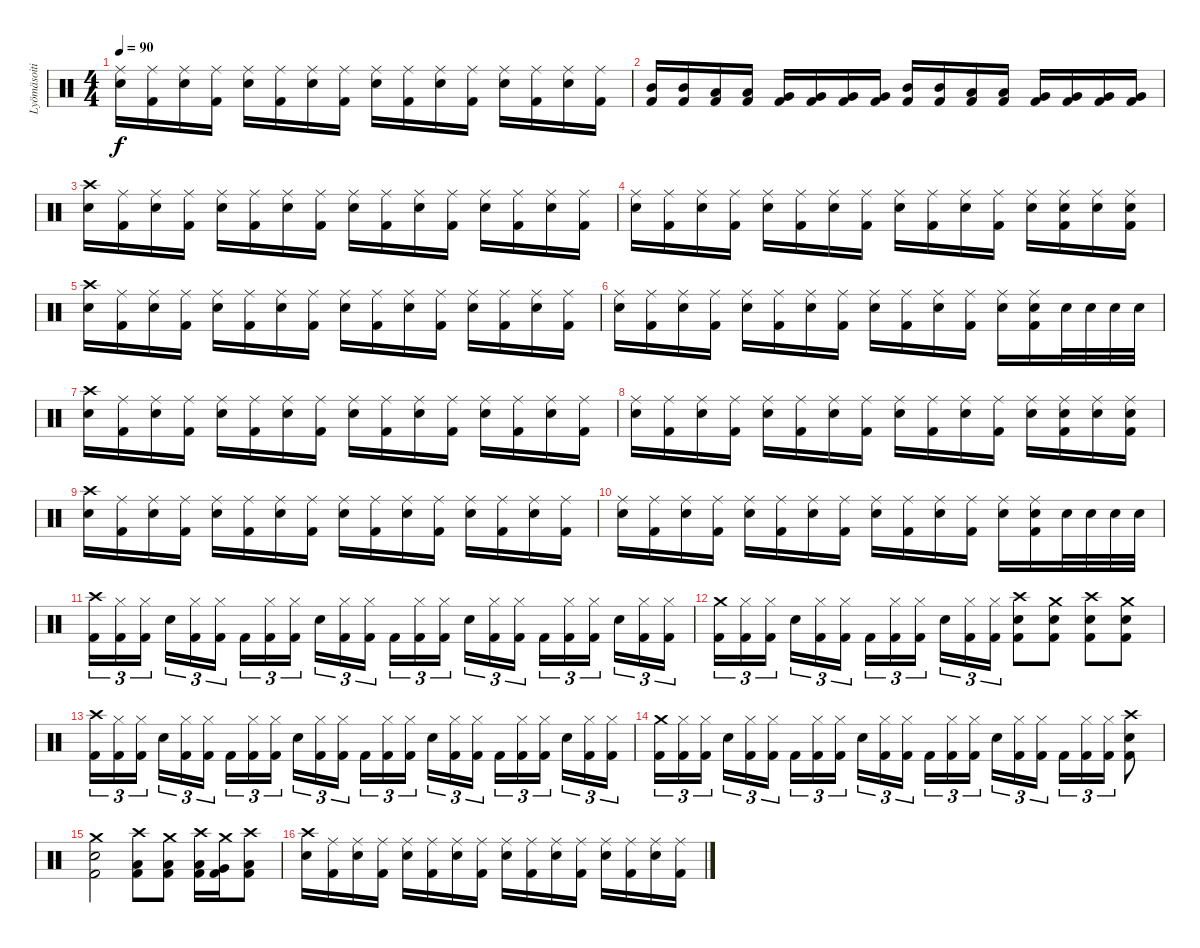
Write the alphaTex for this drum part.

\track ("Lyömäsoitin" "Lyömäsoiti") {instrument percussion}
\staff {score}
\articulation defaults
\ts (4 4)
\tempo 90
\clef neutral
\ks c
("Ride (middle)" "Snare (hit) 2").16{dy f} ("Ride (middle)" "Kick (hit) 2").16 ("Ride (middle)" "Snare (hit) 2").16 ("Ride (middle)" "Kick (hit) 2").16 ("Ride (middle)" "Snare (hit) 2").16 ("Ride (middle)" "Kick (hit) 2").16 ("Ride (middle)" "Snare (hit) 2").16 ("Ride (middle)" "Kick (hit) 2").16 ("Ride (middle)" "Snare (hit) 2").16 ("Ride (middle)" "Kick (hit) 2").16 ("Ride (middle)" "Snare (hit) 2").16 ("Ride (middle)" "Kick (hit) 2").16 ("Ride (middle)" "Snare (hit) 2").16 ("Ride (middle)" "Kick (hit) 2").16 ("Ride (middle)" "Snare (hit) 2").16 ("Ride (middle)" "Kick (hit) 2").16 |
("Mid Tom (hit)" "Kick (hit) 2").16 ("Mid Tom (hit)" "Kick (hit) 2").16 ("Low Tom (hit)" "Kick (hit) 2").16 ("Low Tom (hit)" "Kick (hit) 2").16 ("Very Low Tom (hit)" "Kick (hit) 2").16 ("Very Low Tom (hit)" "Kick (hit) 2").16 ("Very Low Tom (hit)" "Kick (hit) 2").16 ("Very Low Tom (hit)" "Kick (hit) 2").16 ("Mid Tom (hit)" "Kick (hit) 2").16 ("Mid Tom (hit)" "Kick (hit) 2").16 ("Low Tom (hit)" "Kick (hit) 2").16 ("Low Tom (hit)" "Kick (hit) 2").16 ("Very Low Tom (hit)" "Kick (hit) 2").16 ("Very Low Tom (hit)" "Kick (hit) 2").16 ("Very Low Tom (hit)" "Kick (hit) 2").16 ("Very Low Tom (hit)" "Kick (hit) 2").16 |
("Crash high (hit)" "Snare (hit) 2").16 ("Ride (middle)" "Kick (hit) 2").16 ("Ride (middle)" "Snare (hit) 2").16 ("Ride (middle)" "Kick (hit) 2").16 ("Ride (middle)" "Snare (hit) 2").16 ("Ride (middle)" "Kick (hit) 2").16 ("Ride (middle)" "Snare (hit) 2").16 ("Ride (middle)" "Kick (hit) 2").16 ("Ride (middle)" "Snare (hit) 2").16 ("Ride (middle)" "Kick (hit) 2").16 ("Ride (middle)" "Snare (hit) 2").16 ("Ride (middle)" "Kick (hit) 2").16 ("Ride (middle)" "Snare (hit) 2").16 ("Ride (middle)" "Kick (hit) 2").16 ("Ride (middle)" "Snare (hit) 2").16 ("Ride (middle)" "Kick (hit) 2").16 |
("Ride (middle)" "Snare (hit) 2").16 ("Ride (middle)" "Kick (hit) 2").16 ("Ride (middle)" "Snare (hit) 2").16 ("Ride (middle)" "Kick (hit) 2").16 ("Ride (middle)" "Snare (hit) 2").16 ("Ride (middle)" "Kick (hit) 2").16 ("Ride (middle)" "Snare (hit) 2").16 ("Ride (middle)" "Kick (hit) 2").16 ("Ride (middle)" "Snare (hit) 2").16 ("Ride (middle)" "Kick (hit) 2").16 ("Ride (middle)" "Snare (hit) 2").16 ("Ride (middle)" "Kick (hit) 2").16 ("Ride (middle)" "Snare (hit) 2").16 ("Ride (middle)" "Snare (hit) 2" "Kick (hit) 2").16 ("Ride (middle)" "Snare (hit) 2").16 ("Ride (middle)" "Snare (hit) 2" "Kick (hit) 2").16 |
("Crash high (hit)" "Snare (hit) 2").16 ("Ride (middle)" "Kick (hit) 2").16 ("Ride (middle)" "Snare (hit) 2").16 ("Ride (middle)" "Kick (hit) 2").16 ("Ride (middle)" "Snare (hit) 2").16 ("Ride (middle)" "Kick (hit) 2").16 ("Ride (middle)" "Snare (hit) 2").16 ("Ride (middle)" "Kick (hit) 2").16 ("Ride (middle)" "Snare (hit) 2").16 ("Ride (middle)" "Kick (hit) 2").16 ("Ride (middle)" "Snare (hit) 2").16 ("Ride (middle)" "Kick (hit) 2").16 ("Ride (middle)" "Snare (hit) 2").16 ("Ride (middle)" "Kick (hit) 2").16 ("Ride (middle)" "Snare (hit) 2").16 ("Ride (middle)" "Kick (hit) 2").16 |
("Ride (middle)" "Snare (hit) 2").16 ("Ride (middle)" "Kick (hit) 2").16 ("Ride (middle)" "Snare (hit) 2").16 ("Ride (middle)" "Kick (hit) 2").16 ("Ride (middle)" "Snare (hit) 2").16 ("Ride (middle)" "Kick (hit) 2").16 ("Ride (middle)" "Snare (hit) 2").16 ("Ride (middle)" "Kick (hit) 2").16 ("Ride (middle)" "Snare (hit) 2").16 ("Ride (middle)" "Kick (hit) 2").16 ("Ride (middle)" "Snare (hit) 2").16 ("Ride (middle)" "Kick (hit) 2").16 ("Ride (middle)" "Snare (hit) 2").16 ("Ride (middle)" "Snare (hit) 2" "Kick (hit) 2").16 "Snare (hit) 2".32 "Snare (hit) 2".32 "Snare (hit) 2".32 "Snare (hit) 2".32 |
("Crash high (hit)" "Snare (hit) 2").16 ("Ride (middle)" "Kick (hit) 2").16 ("Ride (middle)" "Snare (hit) 2").16 ("Ride (middle)" "Kick (hit) 2").16 ("Ride (middle)" "Snare (hit) 2").16 ("Ride (middle)" "Kick (hit) 2").16 ("Ride (middle)" "Snare (hit) 2").16 ("Ride (middle)" "Kick (hit) 2").16 ("Ride (middle)" "Snare (hit) 2").16 ("Ride (middle)" "Kick (hit) 2").16 ("Ride (middle)" "Snare (hit) 2").16 ("Ride (middle)" "Kick (hit) 2").16 ("Ride (middle)" "Snare (hit) 2").16 ("Ride (middle)" "Kick (hit) 2").16 ("Ride (middle)" "Snare (hit) 2").16 ("Ride (middle)" "Kick (hit) 2").16 |
("Ride (middle)" "Snare (hit) 2").16 ("Ride (middle)" "Kick (hit) 2").16 ("Ride (middle)" "Snare (hit) 2").16 ("Ride (middle)" "Kick (hit) 2").16 ("Ride (middle)" "Snare (hit) 2").16 ("Ride (middle)" "Kick (hit) 2").16 ("Ride (middle)" "Snare (hit) 2").16 ("Ride (middle)" "Kick (hit) 2").16 ("Ride (middle)" "Snare (hit) 2").16 ("Ride (middle)" "Kick (hit) 2").16 ("Ride (middle)" "Snare (hit) 2").16 ("Ride (middle)" "Kick (hit) 2").16 ("Ride (middle)" "Snare (hit) 2").16 ("Ride (middle)" "Snare (hit) 2" "Kick (hit) 2").16 ("Ride (middle)" "Snare (hit) 2").16 ("Ride (middle)" "Snare (hit) 2" "Kick (hit) 2").16 |
("Crash high (hit)" "Snare (hit) 2").16 ("Ride (middle)" "Kick (hit) 2").16 ("Ride (middle)" "Snare (hit) 2").16 ("Ride (middle)" "Kick (hit) 2").16 ("Ride (middle)" "Snare (hit) 2").16 ("Ride (middle)" "Kick (hit) 2").16 ("Ride (middle)" "Snare (hit) 2").16 ("Ride (middle)" "Kick (hit) 2").16 ("Ride (middle)" "Snare (hit) 2").16 ("Ride (middle)" "Kick (hit) 2").16 ("Ride (middle)" "Snare (hit) 2").16 ("Ride (middle)" "Kick (hit) 2").16 ("Ride (middle)" "Snare (hit) 2").16 ("Ride (middle)" "Kick (hit) 2").16 ("Ride (middle)" "Snare (hit) 2").16 ("Ride (middle)" "Kick (hit) 2").16 |
("Ride (middle)" "Snare (hit) 2").16 ("Ride (middle)" "Kick (hit) 2").16 ("Ride (middle)" "Snare (hit) 2").16 ("Ride (middle)" "Kick (hit) 2").16 ("Ride (middle)" "Snare (hit) 2").16 ("Ride (middle)" "Kick (hit) 2").16 ("Ride (middle)" "Snare (hit) 2").16 ("Ride (middle)" "Kick (hit) 2").16 ("Ride (middle)" "Snare (hit) 2").16 ("Ride (middle)" "Kick (hit) 2").16 ("Ride (middle)" "Snare (hit) 2").16 ("Ride (middle)" "Kick (hit) 2").16 ("Ride (middle)" "Snare (hit) 2").16 ("Ride (middle)" "Snare (hit) 2" "Kick (hit) 2").16 "Snare (hit) 2".32 "Snare (hit) 2".32 "Snare (hit) 2".32 "Snare (hit) 2".32 |
("Crash high (hit)" "Kick (hit) 2").16{tu (3 2)} ("Hi-Hat (closed)" "Kick (hit) 2").16{tu (3 2)} ("Hi-Hat (closed)" "Kick (hit) 2").16{tu (3 2)} "Snare (hit) 2".16{tu (3 2)} ("Hi-Hat (closed)" "Kick (hit) 2").16{tu (3 2)} ("Hi-Hat (closed)" "Kick (hit) 2").16{tu (3 2)} "Kick (hit) 2".16{tu (3 2)} ("Hi-Hat (closed)" "Kick (hit) 2").16{tu (3 2)} ("Hi-Hat (closed)" "Kick (hit) 2").16{tu (3 2)} "Snare (hit) 2".16{tu (3 2)} ("Hi-Hat (closed)" "Kick (hit) 2").16{tu (3 2)} ("Hi-Hat (closed)" "Kick (hit) 2").16{tu (3 2)} "Kick (hit) 2".16{tu (3 2)} ("Hi-Hat (closed)" "Kick (hit) 2").16{tu (3 2)} ("Hi-Hat (closed)" "Kick (hit) 2").16{tu (3 2)} "Snare (hit) 2".16{tu (3 2)} ("Hi-Hat (closed)" "Kick (hit) 2").16{tu (3 2)} ("Hi-Hat (closed)" "Kick (hit) 2").16{tu (3 2)} "Kick (hit) 2".16{tu (3 2)} ("Hi-Hat (closed)" "Kick (hit) 2").16{tu (3 2)} ("Hi-Hat (closed)" "Kick (hit) 2").16{tu (3 2)} "Snare (hit) 2".16{tu (3 2)} ("Hi-Hat (closed)" "Kick (hit) 2").16{tu (3 2)} ("Hi-Hat (closed)" "Kick (hit) 2").16{tu (3 2)} |
("Crash medium (hit)" "Kick (hit) 2").16{tu (3 2)} ("Hi-Hat (closed)" "Kick (hit) 2").16{tu (3 2)} ("Hi-Hat (closed)" "Kick (hit) 2").16{tu (3 2)} "Snare (hit) 2".16{tu (3 2)} ("Hi-Hat (closed)" "Kick (hit) 2").16{tu (3 2)} ("Hi-Hat (closed)" "Kick (hit) 2").16{tu (3 2)} "Kick (hit) 2".16{tu (3 2)} ("Hi-Hat (closed)" "Kick (hit) 2").16{tu (3 2)} ("Hi-Hat (closed)" "Kick (hit) 2").16{tu (3 2)} "Snare (hit) 2".16{tu (3 2)} ("Hi-Hat (closed)" "Kick (hit) 2").16{tu (3 2)} ("Hi-Hat (closed)" "Kick (hit) 2").16{tu (3 2)} ("Crash high (hit)" "Snare (hit) 2" "Kick (hit) 2").8 ("Crash medium (hit)" "Snare (hit) 2" "Kick (hit) 2").8 ("Crash high (hit)" "Snare (hit) 2" "Kick (hit) 2").8 ("Crash medium (hit)" "Snare (hit) 2" "Kick (hit) 2").8 |
("Crash high (hit)" "Kick (hit) 2").16{tu (3 2)} ("Hi-Hat (closed)" "Kick (hit) 2").16{tu (3 2)} ("Hi-Hat (closed)" "Kick (hit) 2").16{tu (3 2)} "Snare (hit) 2".16{tu (3 2)} ("Hi-Hat (closed)" "Kick (hit) 2").16{tu (3 2)} ("Hi-Hat (closed)" "Kick (hit) 2").16{tu (3 2)} "Kick (hit) 2".16{tu (3 2)} ("Hi-Hat (closed)" "Kick (hit) 2").16{tu (3 2)} ("Hi-Hat (closed)" "Kick (hit) 2").16{tu (3 2)} "Snare (hit) 2".16{tu (3 2)} ("Hi-Hat (closed)" "Kick (hit) 2").16{tu (3 2)} ("Hi-Hat (closed)" "Kick (hit) 2").16{tu (3 2)} "Kick (hit) 2".16{tu (3 2)} ("Hi-Hat (closed)" "Kick (hit) 2").16{tu (3 2)} ("Hi-Hat (closed)" "Kick (hit) 2").16{tu (3 2)} "Snare (hit) 2".16{tu (3 2)} ("Hi-Hat (closed)" "Kick (hit) 2").16{tu (3 2)} ("Hi-Hat (closed)" "Kick (hit) 2").16{tu (3 2)} "Kick (hit) 2".16{tu (3 2)} ("Hi-Hat (closed)" "Kick (hit) 2").16{tu (3 2)} ("Hi-Hat (closed)" "Kick (hit) 2").16{tu (3 2)} "Snare (hit) 2".16{tu (3 2)} ("Hi-Hat (closed)" "Kick (hit) 2").16{tu (3 2)} ("Hi-Hat (closed)" "Kick (hit) 2").16{tu (3 2)} |
("Crash medium (hit)" "Kick (hit) 2").16{tu (3 2)} ("Hi-Hat (closed)" "Kick (hit) 2").16{tu (3 2)} ("Hi-Hat (closed)" "Kick (hit) 2").16{tu (3 2)} "Snare (hit) 2".16{tu (3 2)} ("Hi-Hat (closed)" "Kick (hit) 2").16{tu (3 2)} ("Hi-Hat (closed)" "Kick (hit) 2").16{tu (3 2)} "Kick (hit) 2".16{tu (3 2)} ("Hi-Hat (closed)" "Kick (hit) 2").16{tu (3 2)} ("Hi-Hat (closed)" "Kick (hit) 2").16{tu (3 2)} "Snare (hit) 2".16{tu (3 2)} ("Hi-Hat (closed)" "Kick (hit) 2").16{tu (3 2)} ("Hi-Hat (closed)" "Kick (hit) 2").16{tu (3 2)} "Kick (hit) 2".16{tu (3 2)} ("Hi-Hat (closed)" "Kick (hit) 2").16{tu (3 2)} ("Hi-Hat (closed)" "Kick (hit) 2").16{tu (3 2)} "Snare (hit) 2".16{tu (3 2)} ("Hi-Hat (closed)" "Kick (hit) 2").16{tu (3 2)} ("Hi-Hat (closed)" "Kick (hit) 2").16{tu (3 2)} "Kick (hit) 2".16{tu (3 2)} ("Hi-Hat (closed)" "Kick (hit) 2").16{tu (3 2)} ("Hi-Hat (closed)" "Kick (hit) 2").16{tu (3 2)} ("Crash high (hit)" "Snare (hit) 2" "Kick (hit) 2").8 |
("Crash medium (hit)" "Snare (hit) 2" "Kick (hit) 2").2 ("Crash high (hit)" "Low Tom (hit)" "Kick (hit) 2").8 ("Crash medium (hit)" "Low Tom (hit)" "Kick (hit) 2").8 ("Crash high (hit)" "Low Tom (hit)" "Kick (hit) 2").16 ("Crash medium (hit)" "Very Low Tom (hit)" "Kick (hit) 2").16 ("Crash high (hit)" "Low Floor Tom (hit)" "Kick (hit) 2").8 |
("Crash high (hit)" "Snare (hit) 2").16 ("Ride (middle)" "Kick (hit) 2").16 ("Ride (middle)" "Snare (hit) 2").16 ("Ride (middle)" "Kick (hit) 2").16 ("Ride (middle)" "Snare (hit) 2").16 ("Ride (middle)" "Kick (hit) 2").16 ("Ride (middle)" "Snare (hit) 2").16 ("Ride (middle)" "Kick (hit) 2").16 ("Ride (middle)" "Snare (hit) 2").16 ("Ride (middle)" "Kick (hit) 2").16 ("Ride (middle)" "Snare (hit) 2").16 ("Ride (middle)" "Kick (hit) 2").16 ("Ride (middle)" "Snare (hit) 2").16 ("Ride (middle)" "Kick (hit) 2").16 ("Ride (middle)" "Snare (hit) 2").16 ("Ride (middle)" "Kick (hit) 2").16
